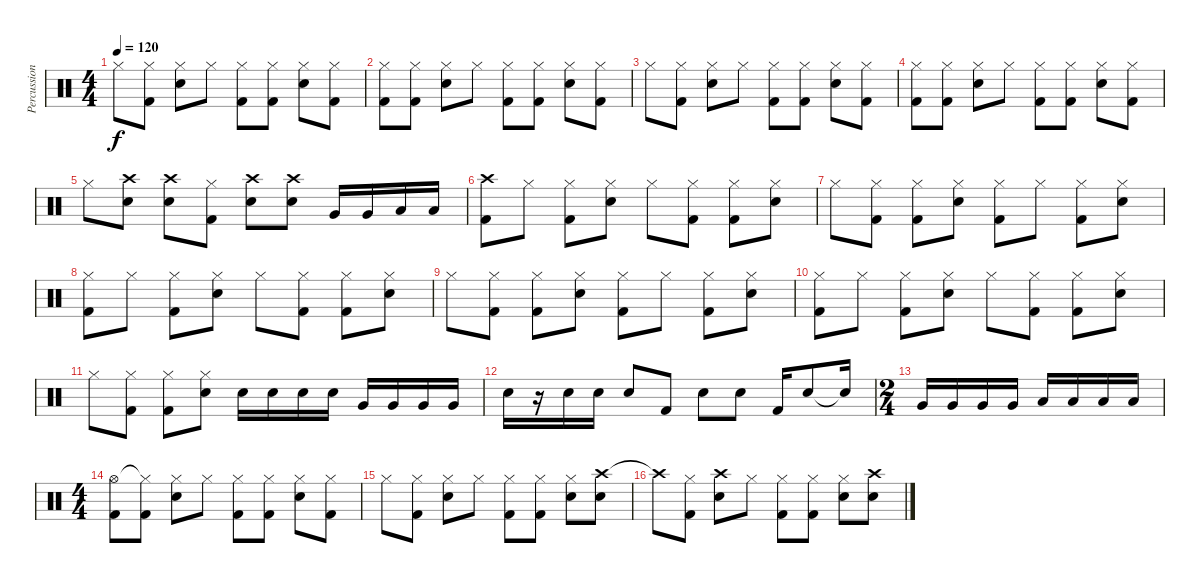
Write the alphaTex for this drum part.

\track ("Percussion" "Percussion") {instrument percussion}
\staff {score}
\articulation defaults
\ts (4 4)
\tempo 120
\clef neutral
\ks c "Hi-Hat (closed)".8{dy f}
("Hi-Hat (closed)" "Kick (hit) 2").8 ("Hi-Hat (closed)" "Snare (hit) 2").8 "Hi-Hat (closed)".8 ("Hi-Hat (closed)" "Kick (hit) 2").8 ("Hi-Hat (closed)" "Kick (hit) 2").8 ("Hi-Hat (closed)" "Snare (hit) 2").8 ("Hi-Hat (closed)" "Kick (hit) 2").8 |
("Hi-Hat (closed)" "Kick (hit) 2").8 ("Hi-Hat (closed)" "Kick (hit) 2").8 ("Hi-Hat (closed)" "Snare (hit) 2").8 "Hi-Hat (closed)".8 ("Hi-Hat (closed)" "Kick (hit) 2").8 ("Hi-Hat (closed)" "Kick (hit) 2").8 ("Hi-Hat (closed)" "Snare (hit) 2").8 ("Hi-Hat (closed)" "Kick (hit) 2").8 |
"Hi-Hat (closed)".8 ("Hi-Hat (closed)" "Kick (hit) 2").8 ("Hi-Hat (closed)" "Snare (hit) 2").8 "Hi-Hat (closed)".8 ("Hi-Hat (closed)" "Kick (hit) 2").8 ("Hi-Hat (closed)" "Kick (hit) 2").8 ("Hi-Hat (closed)" "Snare (hit) 2").8 ("Hi-Hat (closed)" "Kick (hit) 2").8 |
("Hi-Hat (closed)" "Kick (hit) 2").8 ("Hi-Hat (closed)" "Kick (hit) 2").8 ("Hi-Hat (closed)" "Snare (hit) 2").8 "Hi-Hat (closed)".8 ("Hi-Hat (closed)" "Kick (hit) 2").8 ("Hi-Hat (closed)" "Kick (hit) 2").8 ("Hi-Hat (closed)" "Snare (hit) 2").8 ("Hi-Hat (closed)" "Kick (hit) 2").8 |
"Hi-Hat (closed)".8 ("Crash high (hit)" "Snare (hit) 2").8 ("Crash high (hit)" "Snare (hit) 2").8 ("Hi-Hat (closed)" "Kick (hit) 2").8 ("Crash high (hit)" "Snare (hit) 2").8 ("Crash high (hit)" "Snare (hit) 2").8 "Very Low Tom (hit)".16 "Very Low Tom (hit)".16 "Low Floor Tom (hit)".16 "Low Floor Tom (hit)".16 |
("Crash high (hit)" "Kick (hit) 2").8 "Hi-Hat (closed)".8 ("Hi-Hat (closed)" "Kick (hit) 2").8 ("Hi-Hat (closed)" "Snare (hit) 2").8 "Hi-Hat (closed)".8 ("Hi-Hat (closed)" "Kick (hit) 2").8 ("Hi-Hat (closed)" "Kick (hit) 2").8 ("Hi-Hat (closed)" "Snare (hit) 2").8 |
"Hi-Hat (closed)".8 ("Hi-Hat (closed)" "Kick (hit) 2").8 ("Hi-Hat (closed)" "Kick (hit) 2").8 ("Hi-Hat (closed)" "Snare (hit) 2").8 ("Hi-Hat (closed)" "Kick (hit) 2").8 "Hi-Hat (closed)".8 ("Hi-Hat (closed)" "Kick (hit) 2").8 ("Hi-Hat (closed)" "Snare (hit) 2").8 |
("Hi-Hat (closed)" "Kick (hit) 2").8 "Hi-Hat (closed)".8 ("Hi-Hat (closed)" "Kick (hit) 2").8 ("Hi-Hat (closed)" "Snare (hit) 2").8 "Hi-Hat (closed)".8 ("Hi-Hat (closed)" "Kick (hit) 2").8 ("Hi-Hat (closed)" "Kick (hit) 2").8 ("Hi-Hat (closed)" "Snare (hit) 2").8 |
"Hi-Hat (closed)".8 ("Hi-Hat (closed)" "Kick (hit) 2").8 ("Hi-Hat (closed)" "Kick (hit) 2").8 ("Hi-Hat (closed)" "Snare (hit) 2").8 ("Hi-Hat (closed)" "Kick (hit) 2").8 "Hi-Hat (closed)".8 ("Hi-Hat (closed)" "Kick (hit) 2").8 ("Hi-Hat (closed)" "Snare (hit) 2").8 |
("Hi-Hat (closed)" "Kick (hit) 2").8 "Hi-Hat (closed)".8 ("Hi-Hat (closed)" "Kick (hit) 2").8 ("Hi-Hat (closed)" "Snare (hit) 2").8 "Hi-Hat (closed)".8 ("Hi-Hat (closed)" "Kick (hit) 2").8 ("Hi-Hat (closed)" "Kick (hit) 2").8 ("Hi-Hat (closed)" "Snare (hit) 2").8 |
"Hi-Hat (closed)".8 ("Hi-Hat (closed)" "Kick (hit) 2").8 ("Hi-Hat (closed)" "Kick (hit) 2").8 ("Hi-Hat (closed)" "Snare (hit) 2").8 "Snare (hit) 2".16 "Snare (hit) 2".16 "Snare (hit) 2".16 "Snare (hit) 2".16 "Very Low Tom (hit)".16 "Very Low Tom (hit)".16 "Very Low Tom (hit)".16 "Very Low Tom (hit)".16 |
"Snare (hit) 2".16 r.16 "Snare (hit) 2".16 "Snare (hit) 2".16 "Snare (hit) 2".8 "Kick (hit) 2".8 "Snare (hit) 2".8 "Snare (hit) 2".8 "Kick (hit) 2".16 "Snare (hit) 2".8 "Snare (hit)"{t}.16 |
\ts (2 4)
"Very Low Tom (hit)".16 "Very Low Tom (hit)".16 "Very Low Tom (hit)".16 "Very Low Tom (hit)".16 "Low Floor Tom (hit)".16 "Low Floor Tom (hit)".16 "Low Floor Tom (hit)".16 "Low Floor Tom (hit)".16 |
\ts (4 4)
("Hi-Hat (open)" "Kick (hit) 2").8 ("Hi-Hat (closed)"{t} "Kick (hit) 2").8 ("Hi-Hat (closed)" "Snare (hit) 2").8 "Hi-Hat (closed)".8 ("Hi-Hat (closed)" "Kick (hit) 2").8 ("Hi-Hat (closed)" "Kick (hit) 2").8 ("Hi-Hat (closed)" "Snare (hit) 2").8 ("Hi-Hat (closed)" "Kick (hit) 2").8 |
"Hi-Hat (closed)".8 ("Hi-Hat (closed)" "Kick (hit) 2").8 ("Hi-Hat (closed)" "Snare (hit) 2").8 "Hi-Hat (closed)".8 ("Hi-Hat (closed)" "Kick (hit) 2").8 ("Hi-Hat (closed)" "Kick (hit) 2").8 ("Hi-Hat (closed)" "Snare (hit) 2").8 ("Crash high (hit)" "Snare (hit) 2").8 |
"Crash high (hit)"{t}.8 ("Hi-Hat (closed)" "Kick (hit) 2").8 ("Crash high (hit)" "Snare (hit) 2").8 "Hi-Hat (closed)".8 ("Hi-Hat (closed)" "Kick (hit) 2").8 ("Hi-Hat (closed)" "Kick (hit) 2").8 ("Hi-Hat (closed)" "Snare (hit) 2").8 ("Crash high (hit)" "Snare (hit) 2").8
